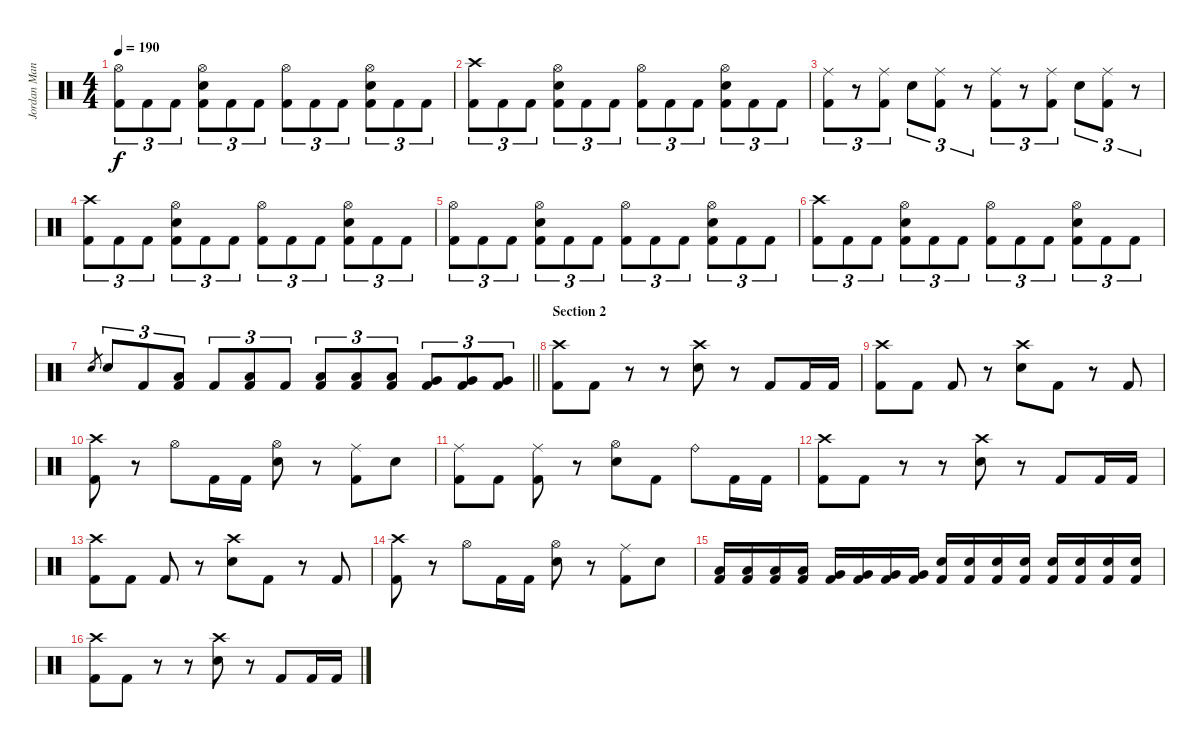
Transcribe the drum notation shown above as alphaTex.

\track ("Jordan Mancino" "Jordan Man") {instrument percussion}
\staff {score}
\articulation defaults
\ts (4 4)
\tempo 190
\clef neutral
\ks c
("Hi-Hat (open)" "Kick (hit) 2").8{tu (3 2) dy f} "Kick (hit) 2".8{tu (3 2)} "Kick (hit) 2".8{tu (3 2)} ("Hi-Hat (open)" "Electric Snare (hit)" "Kick (hit) 2").8{tu (3 2)} "Kick (hit) 2".8{tu (3 2)} "Kick (hit) 2".8{tu (3 2)} ("Hi-Hat (open)" "Kick (hit) 2").8{tu (3 2)} "Kick (hit) 2".8{tu (3 2)} "Kick (hit) 2".8{tu (3 2)} ("Hi-Hat (open)" "Electric Snare (hit)" "Kick (hit) 2").8{tu (3 2)} "Kick (hit) 2".8{tu (3 2)} "Kick (hit) 2".8{tu (3 2)} |
("Crash high (hit)" "Kick (hit) 2").8{tu (3 2)} "Kick (hit) 2".8{tu (3 2)} "Kick (hit) 2".8{tu (3 2)} ("Hi-Hat (open)" "Electric Snare (hit)" "Kick (hit) 2").8{tu (3 2)} "Kick (hit) 2".8{tu (3 2)} "Kick (hit) 2".8{tu (3 2)} ("Hi-Hat (open)" "Kick (hit) 2").8{tu (3 2)} "Kick (hit) 2".8{tu (3 2)} "Kick (hit) 2".8{tu (3 2)} ("Hi-Hat (open)" "Electric Snare (hit)" "Kick (hit) 2").8{tu (3 2)} "Kick (hit) 2".8{tu (3 2)} "Kick (hit) 2".8{tu (3 2)} |
("Ride (middle)" "Kick (hit) 2").8{tu (3 2)} r.8{tu (3 2)} ("Ride (middle)" "Kick (hit) 2").8{tu (3 2)} "Electric Snare (hit)".8{tu (3 2)} ("Ride (middle)" "Kick (hit) 2").8{tu (3 2)} r.8{tu (3 2)} ("Ride (middle)" "Kick (hit) 2").8{tu (3 2)} r.8{tu (3 2)} ("Ride (middle)" "Kick (hit) 2").8{tu (3 2)} "Electric Snare (hit)".8{tu (3 2)} ("Ride (middle)" "Kick (hit) 2").8{tu (3 2)} r.8{tu (3 2)} |
("Crash high (hit)" "Kick (hit) 2").8{tu (3 2)} "Kick (hit) 2".8{tu (3 2)} "Kick (hit) 2".8{tu (3 2)} ("Hi-Hat (open)" "Electric Snare (hit)" "Kick (hit) 2").8{tu (3 2)} "Kick (hit) 2".8{tu (3 2)} "Kick (hit) 2".8{tu (3 2)} ("Hi-Hat (open)" "Kick (hit) 2").8{tu (3 2)} "Kick (hit) 2".8{tu (3 2)} "Kick (hit) 2".8{tu (3 2)} ("Hi-Hat (open)" "Electric Snare (hit)" "Kick (hit) 2").8{tu (3 2)} "Kick (hit) 2".8{tu (3 2)} "Kick (hit) 2".8{tu (3 2)} |
("Hi-Hat (open)" "Kick (hit) 2").8{tu (3 2)} "Kick (hit) 2".8{tu (3 2)} "Kick (hit) 2".8{tu (3 2)} ("Hi-Hat (open)" "Electric Snare (hit)" "Kick (hit) 2").8{tu (3 2)} "Kick (hit) 2".8{tu (3 2)} "Kick (hit) 2".8{tu (3 2)} ("Hi-Hat (open)" "Kick (hit) 2").8{tu (3 2)} "Kick (hit) 2".8{tu (3 2)} "Kick (hit) 2".8{tu (3 2)} ("Hi-Hat (open)" "Electric Snare (hit)" "Kick (hit) 2").8{tu (3 2)} "Kick (hit) 2".8{tu (3 2)} "Kick (hit) 2".8{tu (3 2)} |
("Crash high (hit)" "Kick (hit) 2").8{tu (3 2)} "Kick (hit) 2".8{tu (3 2)} "Kick (hit) 2".8{tu (3 2)} ("Hi-Hat (open)" "Electric Snare (hit)" "Kick (hit) 2").8{tu (3 2)} "Kick (hit) 2".8{tu (3 2)} "Kick (hit) 2".8{tu (3 2)} ("Hi-Hat (open)" "Kick (hit) 2").8{tu (3 2)} "Kick (hit) 2".8{tu (3 2)} "Kick (hit) 2".8{tu (3 2)} ("Hi-Hat (open)" "Electric Snare (hit)" "Kick (hit) 2").8{tu (3 2)} "Kick (hit) 2".8{tu (3 2)} "Kick (hit) 2".8{tu (3 2)} |
\barLineRight lightlight "Electric Snare (hit)".8{gr} "Electric Snare (hit)".8{tu (3 2)} "Kick (hit) 2".8{tu (3 2)}
("Low Tom (hit)" "Kick (hit) 2").8{tu (3 2)} "Kick (hit) 2".8{tu (3 2)} ("Low Tom (hit)" "Kick (hit) 2").8{tu (3 2)} "Kick (hit) 2".8{tu (3 2)} ("Low Tom (hit)" "Kick (hit) 2").8{tu (3 2)} ("Low Tom (hit)" "Kick (hit) 2").8{tu (3 2)} ("Low Tom (hit)" "Kick (hit) 2").8{tu (3 2)} ("Very Low Tom (hit)" "Kick (hit) 2").8{tu (3 2)} ("Very Low Tom (hit)" "Kick (hit) 2").8{tu (3 2)} ("Very Low Tom (hit)" "Kick (hit) 2").8{tu (3 2)} |
\section ("" "Section 2")
("Crash high (hit)" "Kick (hit) 2").8 "Kick (hit) 2".8 r.8 r.8 ("Crash high (hit)" "Electric Snare (hit)").8 r.8 "Kick (hit) 2".8 "Kick (hit) 2".16 "Kick (hit) 2".16 |
("Crash high (hit)" "Kick (hit) 2").8 "Kick (hit) 2".8 "Kick (hit) 2".8 r.8 ("Crash high (hit)" "Electric Snare (hit)").8 "Kick (hit) 2".8 r.8 "Kick (hit) 2".8 |
("Crash high (hit)" "Kick (hit) 2").8 r.8 "Hi-Hat (open)".8 "Kick (hit) 2".16 "Kick (hit) 2".16 ("Hi-Hat (open)" "Electric Snare (hit)").8 r.8 ("Ride (middle)" "Kick (hit) 2").8 "Electric Snare (hit)".8 |
("Ride (middle)" "Kick (hit) 2").8 "Kick (hit) 2".8 ("Ride (middle)" "Kick (hit) 2").8 r.8 ("Hi-Hat (open)" "Electric Snare (hit)").8 "Kick (hit) 2".8 "Ride (bell)".8 "Kick (hit) 2".16 "Kick (hit) 2".16 |
("Crash high (hit)" "Kick (hit) 2").8 "Kick (hit) 2".8 r.8 r.8 ("Crash high (hit)" "Electric Snare (hit)").8 r.8 "Kick (hit) 2".8 "Kick (hit) 2".16 "Kick (hit) 2".16 |
("Crash high (hit)" "Kick (hit) 2").8 "Kick (hit) 2".8 "Kick (hit) 2".8 r.8 ("Crash high (hit)" "Electric Snare (hit)").8 "Kick (hit) 2".8 r.8 "Kick (hit) 2".8 |
("Crash high (hit)" "Kick (hit) 2").8 r.8 "Hi-Hat (open)".8 "Kick (hit) 2".16 "Kick (hit) 2".16 ("Hi-Hat (open)" "Electric Snare (hit)").8 r.8 ("Ride (middle)" "Kick (hit) 2").8 "Electric Snare (hit)".8 |
("Low Tom (hit)" "Kick (hit) 2").16 ("Low Tom (hit)" "Kick (hit) 2").16 ("Low Tom (hit)" "Kick (hit) 2").16 ("Low Tom (hit)" "Kick (hit) 2").16 ("Very Low Tom (hit)" "Kick (hit) 2").16 ("Very Low Tom (hit)" "Kick (hit) 2").16 ("Very Low Tom (hit)" "Kick (hit) 2").16 ("Very Low Tom (hit)" "Kick (hit) 2").16 ("Electric Snare (hit)" "Kick (hit) 2").16 ("Electric Snare (hit)" "Kick (hit) 2").16 ("Electric Snare (hit)" "Kick (hit) 2").16 ("Electric Snare (hit)" "Kick (hit) 2").16 ("Electric Snare (hit)" "Kick (hit) 2").16 ("Electric Snare (hit)" "Kick (hit) 2").16 ("Electric Snare (hit)" "Kick (hit) 2").16 ("Electric Snare (hit)" "Kick (hit) 2").16 |
("Crash high (hit)" "Kick (hit) 2").8 "Kick (hit) 2".8 r.8 r.8 ("Crash high (hit)" "Electric Snare (hit)").8 r.8 "Kick (hit) 2".8 "Kick (hit) 2".16 "Kick (hit) 2".16
